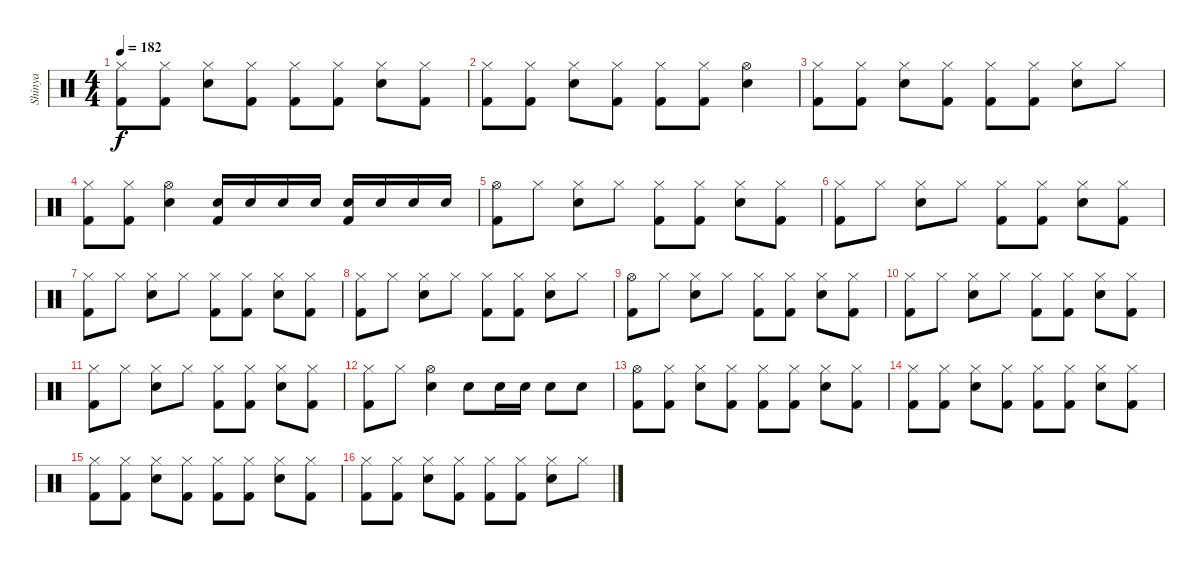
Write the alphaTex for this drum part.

\track ("Shinya" "Shinya") {instrument percussion}
\staff {score}
\articulation defaults
\ts (4 4)
\tempo 182
\clef neutral
\ks c
("Kick (hit) 2" "Hi-Hat (closed)").8{dy f} ("Kick (hit) 2" "Hi-Hat (closed)").8 ("Snare (hit) 2" "Hi-Hat (closed)").8 ("Kick (hit) 2" "Hi-Hat (closed)").8 ("Kick (hit) 2" "Hi-Hat (closed)").8 ("Kick (hit) 2" "Hi-Hat (closed)").8 ("Snare (hit) 2" "Hi-Hat (closed)").8 ("Kick (hit) 2" "Hi-Hat (closed)").8 |
("Kick (hit) 2" "Hi-Hat (closed)").8 ("Kick (hit) 2" "Hi-Hat (closed)").8 ("Snare (hit) 2" "Hi-Hat (closed)").8 ("Kick (hit) 2" "Hi-Hat (closed)").8 ("Kick (hit) 2" "Hi-Hat (closed)").8 ("Kick (hit) 2" "Hi-Hat (closed)").8 ("Snare (hit) 2" "Hi-Hat (open)").4 |
("Kick (hit) 2" "Hi-Hat (closed)").8 ("Kick (hit) 2" "Hi-Hat (closed)").8 ("Snare (hit) 2" "Hi-Hat (closed)").8 ("Kick (hit) 2" "Hi-Hat (closed)").8 ("Kick (hit) 2" "Hi-Hat (closed)").8 ("Kick (hit) 2" "Hi-Hat (closed)").8 ("Snare (hit) 2" "Hi-Hat (closed)").8 "Hi-Hat (closed)".8 |
("Kick (hit) 2" "Hi-Hat (closed)").8 ("Kick (hit) 2" "Hi-Hat (closed)").8 ("Snare (hit) 2" "Hi-Hat (open)").4 ("Snare (hit) 2" "Kick (hit) 2").16 "Snare (hit) 2".16 "Snare (hit) 2".16 "Snare (hit) 2".16 ("Snare (hit) 2" "Kick (hit) 2").16 "Snare (hit) 2".16 "Snare (hit) 2".16 "Snare (hit) 2".16 |
("Kick (hit) 2" "Hi-Hat (open)").8 "Hi-Hat (closed)".8 ("Snare (hit) 2" "Hi-Hat (closed)").8 "Hi-Hat (closed)".8 ("Kick (hit) 2" "Hi-Hat (closed)").8 ("Kick (hit) 2" "Hi-Hat (closed)").8 ("Snare (hit) 2" "Hi-Hat (closed)").8 ("Kick (hit) 2" "Hi-Hat (closed)").8 |
("Kick (hit) 2" "Hi-Hat (closed)").8 "Hi-Hat (closed)".8 ("Snare (hit) 2" "Hi-Hat (closed)").8 "Hi-Hat (closed)".8 ("Kick (hit) 2" "Hi-Hat (closed)").8 ("Kick (hit) 2" "Hi-Hat (closed)").8 ("Snare (hit) 2" "Hi-Hat (closed)").8 ("Kick (hit) 2" "Hi-Hat (closed)").8 |
("Kick (hit) 2" "Hi-Hat (closed)").8 "Hi-Hat (closed)".8 ("Snare (hit) 2" "Hi-Hat (closed)").8 "Hi-Hat (closed)".8 ("Kick (hit) 2" "Hi-Hat (closed)").8 ("Kick (hit) 2" "Hi-Hat (closed)").8 ("Snare (hit) 2" "Hi-Hat (closed)").8 ("Kick (hit) 2" "Hi-Hat (closed)").8 |
("Kick (hit) 2" "Hi-Hat (closed)").8 "Hi-Hat (closed)".8 ("Snare (hit) 2" "Hi-Hat (closed)").8 "Hi-Hat (closed)".8 ("Kick (hit) 2" "Hi-Hat (closed)").8 ("Kick (hit) 2" "Hi-Hat (closed)").8 ("Snare (hit) 2" "Hi-Hat (closed)").8 "Hi-Hat (closed)".8 |
("Kick (hit) 2" "Hi-Hat (open)").8 "Hi-Hat (closed)".8 ("Snare (hit) 2" "Hi-Hat (closed)").8 "Hi-Hat (closed)".8 ("Kick (hit) 2" "Hi-Hat (closed)").8 ("Kick (hit) 2" "Hi-Hat (closed)").8 ("Snare (hit) 2" "Hi-Hat (closed)").8 ("Kick (hit) 2" "Hi-Hat (closed)").8 |
("Kick (hit) 2" "Hi-Hat (closed)").8 "Hi-Hat (closed)".8 ("Snare (hit) 2" "Hi-Hat (closed)").8 "Hi-Hat (closed)".8 ("Kick (hit) 2" "Hi-Hat (closed)").8 ("Kick (hit) 2" "Hi-Hat (closed)").8 ("Snare (hit) 2" "Hi-Hat (closed)").8 ("Kick (hit) 2" "Hi-Hat (closed)").8 |
("Kick (hit) 2" "Hi-Hat (closed)").8 "Hi-Hat (closed)".8 ("Snare (hit) 2" "Hi-Hat (closed)").8 "Hi-Hat (closed)".8 ("Kick (hit) 2" "Hi-Hat (closed)").8 ("Kick (hit) 2" "Hi-Hat (closed)").8 ("Snare (hit) 2" "Hi-Hat (closed)").8 ("Kick (hit) 2" "Hi-Hat (closed)").8 |
("Kick (hit) 2" "Hi-Hat (closed)").8 "Hi-Hat (closed)".8 ("Snare (hit) 2" "Hi-Hat (open)").4 "Snare (hit) 2".8 "Snare (hit) 2".16 "Snare (hit) 2".16 "Snare (hit) 2".8 "Snare (hit) 2".8 |
("Kick (hit) 2" "Hi-Hat (open)").8 ("Kick (hit) 2" "Hi-Hat (closed)").8 ("Snare (hit) 2" "Hi-Hat (closed)").8 ("Kick (hit) 2" "Hi-Hat (closed)").8 ("Kick (hit) 2" "Hi-Hat (closed)").8 ("Kick (hit) 2" "Hi-Hat (closed)").8 ("Snare (hit) 2" "Hi-Hat (closed)").8 ("Kick (hit) 2" "Hi-Hat (closed)").8 |
("Kick (hit) 2" "Hi-Hat (closed)").8 ("Kick (hit) 2" "Hi-Hat (closed)").8 ("Snare (hit) 2" "Hi-Hat (closed)").8 ("Kick (hit) 2" "Hi-Hat (closed)").8 ("Kick (hit) 2" "Hi-Hat (closed)").8 ("Kick (hit) 2" "Hi-Hat (closed)").8 ("Snare (hit) 2" "Hi-Hat (closed)").8 ("Kick (hit) 2" "Hi-Hat (closed)").8 |
("Kick (hit) 2" "Hi-Hat (closed)").8 ("Kick (hit) 2" "Hi-Hat (closed)").8 ("Snare (hit) 2" "Hi-Hat (closed)").8 ("Kick (hit) 2" "Hi-Hat (closed)").8 ("Kick (hit) 2" "Hi-Hat (closed)").8 ("Kick (hit) 2" "Hi-Hat (closed)").8 ("Snare (hit) 2" "Hi-Hat (closed)").8 ("Kick (hit) 2" "Hi-Hat (closed)").8 |
("Kick (hit) 2" "Hi-Hat (closed)").8 ("Kick (hit) 2" "Hi-Hat (closed)").8 ("Snare (hit) 2" "Hi-Hat (closed)").8 ("Kick (hit) 2" "Hi-Hat (closed)").8 ("Kick (hit) 2" "Hi-Hat (closed)").8 ("Kick (hit) 2" "Hi-Hat (closed)").8 ("Snare (hit) 2" "Hi-Hat (closed)").8 "Hi-Hat (closed)".8
